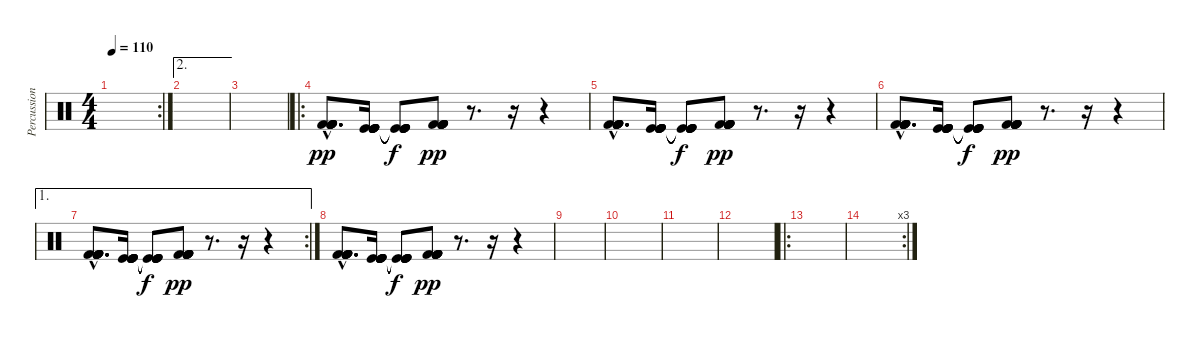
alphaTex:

\track ("Percussion 3" "Percussion") {instrument percussion}
\staff {score}
\articulation defaults
\rc 2
\ts (4 4)
\tempo 110
\clef neutral
\ks c
|
\ae 2
|
|
\ro
("Kick (hit) 2"{hac} "Kick (hit) 2"{hac} "Kick (hit) 2"{hac} "Kick (hit) 2"{hac} "Kick (hit) 2"{hac} "Kick (hit) 2"{hac}).8{d dy pp} ("Kick (hit)" "Kick (hit)" "Kick (hit)" "Kick (hit)" "Kick (hit)" "Kick (hit)").16 ("Kick (hit)"{t} "Kick (hit)"{t} "Kick (hit)"{t} "Kick (hit)"{t} "Kick (hit)"{t}).8{dy f} ("Kick (hit) 2" "Kick (hit) 2" "Kick (hit) 2" "Kick (hit) 2" "Kick (hit) 2" "Kick (hit) 2").8{dy pp} r.8{d} r.16 r.4 |
("Kick (hit) 2"{hac} "Kick (hit) 2"{hac} "Kick (hit) 2"{hac} "Kick (hit) 2"{hac} "Kick (hit) 2"{hac} "Kick (hit) 2"{hac}).8{d} ("Kick (hit)" "Kick (hit)" "Kick (hit)" "Kick (hit)" "Kick (hit)" "Kick (hit)").16 ("Kick (hit)"{t} "Kick (hit)"{t} "Kick (hit)"{t} "Kick (hit)"{t} "Kick (hit)"{t}).8{dy f} ("Kick (hit) 2" "Kick (hit) 2" "Kick (hit) 2" "Kick (hit) 2" "Kick (hit) 2" "Kick (hit) 2").8{dy pp} r.8{d} r.16 r.4 |
("Kick (hit) 2"{hac} "Kick (hit) 2"{hac} "Kick (hit) 2"{hac} "Kick (hit) 2"{hac} "Kick (hit) 2"{hac} "Kick (hit) 2"{hac}).8{d} ("Kick (hit)" "Kick (hit)" "Kick (hit)" "Kick (hit)" "Kick (hit)" "Kick (hit)").16 ("Kick (hit)"{t} "Kick (hit)"{t} "Kick (hit)"{t} "Kick (hit)"{t} "Kick (hit)"{t}).8{dy f} ("Kick (hit) 2" "Kick (hit) 2" "Kick (hit) 2" "Kick (hit) 2" "Kick (hit) 2" "Kick (hit) 2").8{dy pp} r.8{d} r.16 r.4 |
\ae 1
\rc 2
("Kick (hit) 2"{hac} "Kick (hit) 2"{hac} "Kick (hit) 2"{hac} "Kick (hit) 2"{hac} "Kick (hit) 2"{hac} "Kick (hit) 2"{hac}).8{d} ("Kick (hit)" "Kick (hit)" "Kick (hit)" "Kick (hit)" "Kick (hit)" "Kick (hit)").16 ("Kick (hit)"{t} "Kick (hit)"{t} "Kick (hit)"{t} "Kick (hit)"{t} "Kick (hit)"{t}).8{dy f} ("Kick (hit) 2" "Kick (hit) 2" "Kick (hit) 2" "Kick (hit) 2" "Kick (hit) 2" "Kick (hit) 2").8{dy pp} r.8{d} r.16 r.4 |
("Kick (hit) 2"{hac} "Kick (hit) 2"{hac} "Kick (hit) 2"{hac} "Kick (hit) 2"{hac} "Kick (hit) 2"{hac} "Kick (hit) 2"{hac}).8{d} ("Kick (hit)" "Kick (hit)" "Kick (hit)" "Kick (hit)" "Kick (hit)" "Kick (hit)").16 ("Kick (hit)"{t} "Kick (hit)"{t} "Kick (hit)"{t} "Kick (hit)"{t} "Kick (hit)"{t}).8{dy f} ("Kick (hit) 2" "Kick (hit) 2" "Kick (hit) 2" "Kick (hit) 2" "Kick (hit) 2" "Kick (hit) 2").8{dy pp} r.8{d} r.16 r.4 |
|
|
|
|
\ro
|
\rc 3
